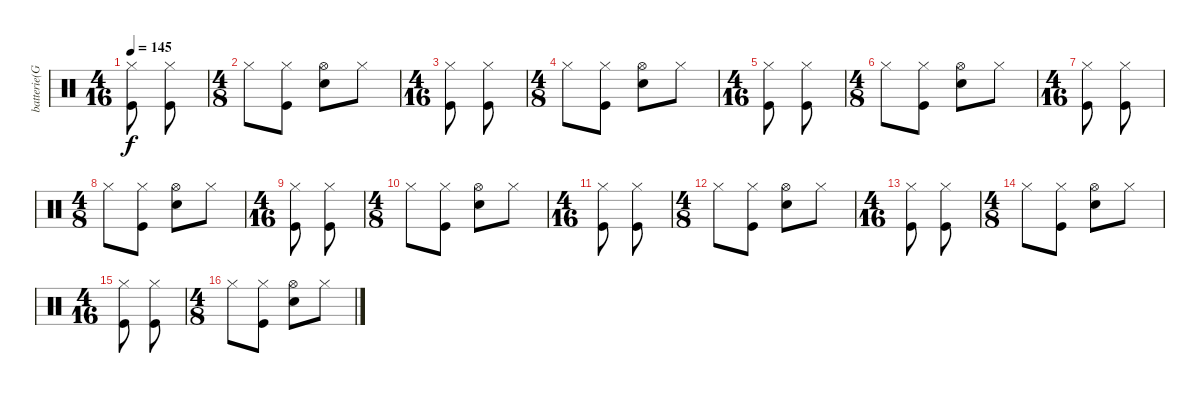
\track ("batterie(Granberg)" "batterie(G") {instrument percussion}
\staff {score}
\articulation defaults
\ts (4 16)
\tempo 145
\clef neutral
\ks c
("Hi-Hat (closed)" "Kick (hit)").8{dy f} ("Hi-Hat (closed)" "Kick (hit)").8 |
\ts (4 8)
"Hi-Hat (closed)".8 ("Hi-Hat (closed)" "Kick (hit)").8 ("Hi-Hat (open)" "Snare (hit) 2").8 "Hi-Hat (closed)".8 |
\ts (4 16)
("Hi-Hat (closed)" "Kick (hit)").8 ("Hi-Hat (closed)" "Kick (hit)").8 |
\ts (4 8)
"Hi-Hat (closed)".8 ("Hi-Hat (closed)" "Kick (hit)").8 ("Hi-Hat (open)" "Snare (hit) 2").8 "Hi-Hat (closed)".8 |
\ts (4 16)
("Hi-Hat (closed)" "Kick (hit)").8 ("Hi-Hat (closed)" "Kick (hit)").8 |
\ts (4 8)
"Hi-Hat (closed)".8 ("Hi-Hat (closed)" "Kick (hit)").8 ("Hi-Hat (open)" "Snare (hit) 2").8 "Hi-Hat (closed)".8 |
\ts (4 16)
("Hi-Hat (closed)" "Kick (hit)").8 ("Hi-Hat (closed)" "Kick (hit)").8 |
\ts (4 8)
"Hi-Hat (closed)".8 ("Hi-Hat (closed)" "Kick (hit)").8 ("Hi-Hat (open)" "Snare (hit) 2").8 "Hi-Hat (closed)".8 |
\ts (4 16)
("Hi-Hat (closed)" "Kick (hit)").8 ("Hi-Hat (closed)" "Kick (hit)").8 |
\ts (4 8)
"Hi-Hat (closed)".8 ("Hi-Hat (closed)" "Kick (hit)").8 ("Hi-Hat (open)" "Snare (hit) 2").8 "Hi-Hat (closed)".8 |
\ts (4 16)
("Hi-Hat (closed)" "Kick (hit)").8 ("Hi-Hat (closed)" "Kick (hit)").8 |
\ts (4 8)
"Hi-Hat (closed)".8 ("Hi-Hat (closed)" "Kick (hit)").8 ("Hi-Hat (open)" "Snare (hit) 2").8 "Hi-Hat (closed)".8 |
\ts (4 16)
("Hi-Hat (closed)" "Kick (hit)").8 ("Hi-Hat (closed)" "Kick (hit)").8 |
\ts (4 8)
"Hi-Hat (closed)".8 ("Hi-Hat (closed)" "Kick (hit)").8 ("Hi-Hat (open)" "Snare (hit) 2").8 "Hi-Hat (closed)".8 |
\ts (4 16)
("Hi-Hat (closed)" "Kick (hit)").8 ("Hi-Hat (closed)" "Kick (hit)").8 |
\ts (4 8)
"Hi-Hat (closed)".8 ("Hi-Hat (closed)" "Kick (hit)").8 ("Hi-Hat (open)" "Snare (hit) 2").8 "Hi-Hat (closed)".8
